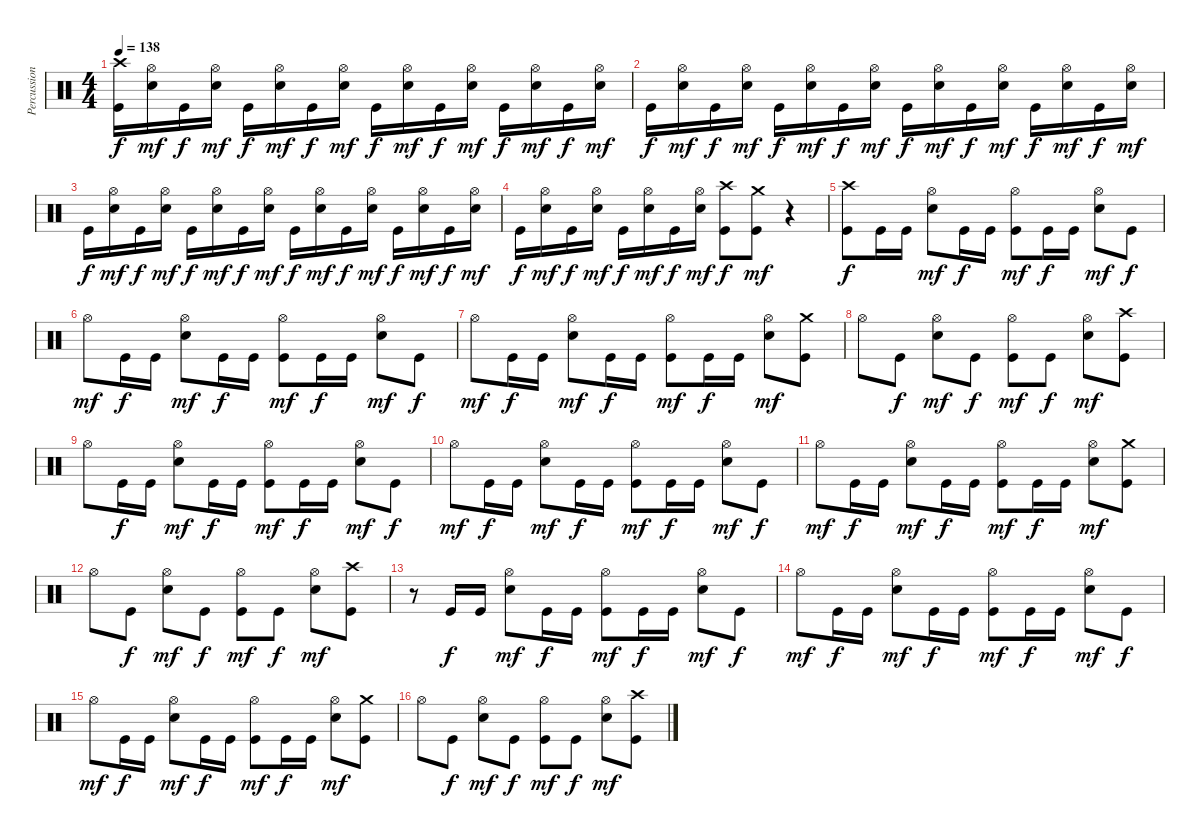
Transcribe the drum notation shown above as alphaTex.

\track ("Percussions" "Percussion") {instrument percussion}
\staff {score}
\articulation defaults
\ts (4 4)
\tempo 138
\clef neutral
\ks c
("Kick (hit)" "Crash high (hit)").16{dy f} ("Electric Snare (hit)" "Hi-Hat (open)").16{dy mf} "Kick (hit)".16{dy f} ("Electric Snare (hit)" "Hi-Hat (open)").16{dy mf} "Kick (hit)".16{dy f} ("Electric Snare (hit)" "Hi-Hat (open)").16{dy mf} "Kick (hit)".16{dy f} ("Electric Snare (hit)" "Hi-Hat (open)").16{dy mf} "Kick (hit)".16{dy f} ("Electric Snare (hit)" "Hi-Hat (open)").16{dy mf} "Kick (hit)".16{dy f} ("Electric Snare (hit)" "Hi-Hat (open)").16{dy mf} "Kick (hit)".16{dy f} ("Electric Snare (hit)" "Hi-Hat (open)").16{dy mf} "Kick (hit)".16{dy f} ("Electric Snare (hit)" "Hi-Hat (open)").16{dy mf} |
"Kick (hit)".16{dy f} ("Electric Snare (hit)" "Hi-Hat (open)").16{dy mf} "Kick (hit)".16{dy f} ("Electric Snare (hit)" "Hi-Hat (open)").16{dy mf} "Kick (hit)".16{dy f} ("Electric Snare (hit)" "Hi-Hat (open)").16{dy mf} "Kick (hit)".16{dy f} ("Electric Snare (hit)" "Hi-Hat (open)").16{dy mf} "Kick (hit)".16{dy f} ("Electric Snare (hit)" "Hi-Hat (open)").16{dy mf} "Kick (hit)".16{dy f} ("Electric Snare (hit)" "Hi-Hat (open)").16{dy mf} "Kick (hit)".16{dy f} ("Electric Snare (hit)" "Hi-Hat (open)").16{dy mf} "Kick (hit)".16{dy f} ("Electric Snare (hit)" "Hi-Hat (open)").16{dy mf} |
"Kick (hit)".16{dy f} ("Electric Snare (hit)" "Hi-Hat (open)").16{dy mf} "Kick (hit)".16{dy f} ("Electric Snare (hit)" "Hi-Hat (open)").16{dy mf} "Kick (hit)".16{dy f} ("Electric Snare (hit)" "Hi-Hat (open)").16{dy mf} "Kick (hit)".16{dy f} ("Electric Snare (hit)" "Hi-Hat (open)").16{dy mf} "Kick (hit)".16{dy f} ("Electric Snare (hit)" "Hi-Hat (open)").16{dy mf} "Kick (hit)".16{dy f} ("Electric Snare (hit)" "Hi-Hat (open)").16{dy mf} "Kick (hit)".16{dy f} ("Electric Snare (hit)" "Hi-Hat (open)").16{dy mf} "Kick (hit)".16{dy f} ("Electric Snare (hit)" "Hi-Hat (open)").16{dy mf} |
"Kick (hit)".16{dy f} ("Electric Snare (hit)" "Hi-Hat (open)").16{dy mf} "Kick (hit)".16{dy f} ("Electric Snare (hit)" "Hi-Hat (open)").16{dy mf} "Kick (hit)".16{dy f} ("Electric Snare (hit)" "Hi-Hat (open)").16{dy mf} "Kick (hit)".16{dy f} ("Electric Snare (hit)" "Hi-Hat (open)").16{dy mf} ("Kick (hit)" "Crash high (hit)").8{dy f} ("Kick (hit)" "Crash medium (hit)").8{dy mf} r.4 |
("Kick (hit)" "Crash high (hit)").8{dy f} "Kick (hit)".16 "Kick (hit)".16 ("Electric Snare (hit)" "Hi-Hat (open)").8{dy mf} "Kick (hit)".16{dy f} "Kick (hit)".16 ("Kick (hit)" "Hi-Hat (open)").8{dy mf} "Kick (hit)".16{dy f} "Kick (hit)".16 ("Electric Snare (hit)" "Hi-Hat (open)").8{dy mf} "Kick (hit)".8{dy f} |
"Hi-Hat (open)".8{dy mf} "Kick (hit)".16{dy f} "Kick (hit)".16 ("Electric Snare (hit)" "Hi-Hat (open)").8{dy mf} "Kick (hit)".16{dy f} "Kick (hit)".16 ("Kick (hit)" "Hi-Hat (open)").8{dy mf} "Kick (hit)".16{dy f} "Kick (hit)".16 ("Electric Snare (hit)" "Hi-Hat (open)").8{dy mf} "Kick (hit)".8{dy f} |
"Hi-Hat (open)".8{dy mf} "Kick (hit)".16{dy f} "Kick (hit)".16 ("Electric Snare (hit)" "Hi-Hat (open)").8{dy mf} "Kick (hit)".16{dy f} "Kick (hit)".16 ("Kick (hit)" "Hi-Hat (open)").8{dy mf} "Kick (hit)".16{dy f} "Kick (hit)".16 ("Electric Snare (hit)" "Hi-Hat (open)").8{dy mf} ("Kick (hit)" "Crash medium (hit)").8 |
"Hi-Hat (open)".8 "Kick (hit)".8{dy f} ("Electric Snare (hit)" "Hi-Hat (open)").8{dy mf} "Kick (hit)".8{dy f} ("Kick (hit)" "Hi-Hat (open)").8{dy mf} "Kick (hit)".8{dy f} ("Electric Snare (hit)" "Hi-Hat (open)").8{dy mf} ("Kick (hit)" "Crash high (hit)").8 |
"Hi-Hat (open)".8 "Kick (hit)".16{dy f} "Kick (hit)".16 ("Electric Snare (hit)" "Hi-Hat (open)").8{dy mf} "Kick (hit)".16{dy f} "Kick (hit)".16 ("Kick (hit)" "Hi-Hat (open)").8{dy mf} "Kick (hit)".16{dy f} "Kick (hit)".16 ("Electric Snare (hit)" "Hi-Hat (open)").8{dy mf} "Kick (hit)".8{dy f} |
"Hi-Hat (open)".8{dy mf} "Kick (hit)".16{dy f} "Kick (hit)".16 ("Electric Snare (hit)" "Hi-Hat (open)").8{dy mf} "Kick (hit)".16{dy f} "Kick (hit)".16 ("Kick (hit)" "Hi-Hat (open)").8{dy mf} "Kick (hit)".16{dy f} "Kick (hit)".16 ("Electric Snare (hit)" "Hi-Hat (open)").8{dy mf} "Kick (hit)".8{dy f} |
"Hi-Hat (open)".8{dy mf} "Kick (hit)".16{dy f} "Kick (hit)".16 ("Electric Snare (hit)" "Hi-Hat (open)").8{dy mf} "Kick (hit)".16{dy f} "Kick (hit)".16 ("Kick (hit)" "Hi-Hat (open)").8{dy mf} "Kick (hit)".16{dy f} "Kick (hit)".16 ("Electric Snare (hit)" "Hi-Hat (open)").8{dy mf} ("Kick (hit)" "Crash medium (hit)").8 |
"Hi-Hat (open)".8 "Kick (hit)".8{dy f} ("Electric Snare (hit)" "Hi-Hat (open)").8{dy mf} "Kick (hit)".8{dy f} ("Kick (hit)" "Hi-Hat (open)").8{dy mf} "Kick (hit)".8{dy f} ("Electric Snare (hit)" "Hi-Hat (open)").8{dy mf} ("Kick (hit)" "Crash high (hit)").8 |
r.8 "Kick (hit)".16{dy f} "Kick (hit)".16 ("Electric Snare (hit)" "Hi-Hat (open)").8{dy mf} "Kick (hit)".16{dy f} "Kick (hit)".16 ("Kick (hit)" "Hi-Hat (open)").8{dy mf} "Kick (hit)".16{dy f} "Kick (hit)".16 ("Electric Snare (hit)" "Hi-Hat (open)").8{dy mf} "Kick (hit)".8{dy f} |
"Hi-Hat (open)".8{dy mf} "Kick (hit)".16{dy f} "Kick (hit)".16 ("Electric Snare (hit)" "Hi-Hat (open)").8{dy mf} "Kick (hit)".16{dy f} "Kick (hit)".16 ("Kick (hit)" "Hi-Hat (open)").8{dy mf} "Kick (hit)".16{dy f} "Kick (hit)".16 ("Electric Snare (hit)" "Hi-Hat (open)").8{dy mf} "Kick (hit)".8{dy f} |
"Hi-Hat (open)".8{dy mf} "Kick (hit)".16{dy f} "Kick (hit)".16 ("Electric Snare (hit)" "Hi-Hat (open)").8{dy mf} "Kick (hit)".16{dy f} "Kick (hit)".16 ("Kick (hit)" "Hi-Hat (open)").8{dy mf} "Kick (hit)".16{dy f} "Kick (hit)".16 ("Electric Snare (hit)" "Hi-Hat (open)").8{dy mf} ("Kick (hit)" "Crash medium (hit)").8 |
"Hi-Hat (open)".8 "Kick (hit)".8{dy f} ("Electric Snare (hit)" "Hi-Hat (open)").8{dy mf} "Kick (hit)".8{dy f} ("Kick (hit)" "Hi-Hat (open)").8{dy mf} "Kick (hit)".8{dy f} ("Electric Snare (hit)" "Hi-Hat (open)").8{dy mf} ("Kick (hit)" "Crash high (hit)").8
